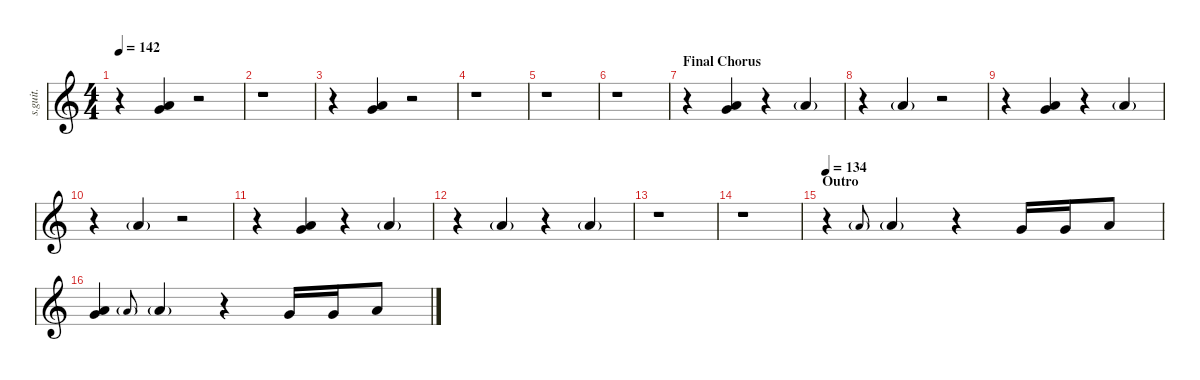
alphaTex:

\defaultSystemsLayout 4
\hideDynamics
\bracketExtendMode nobrackets
\track ("Shawn Crahan" "s.guit.") {instrument percussion}
\staff {score}
\articulation defaults
\ts (4 4)
\tempo 142
\clef g2
\ks c
r.4{dy f} ("Very Low Tom (hit)" "Low Floor Tom (hit)").4 r.2 |
r.1 |
r.4 ("Very Low Tom (hit)" "Low Floor Tom (hit)").4 r.2 |
r.1 |
r.1 |
r.1 |
\section ("" "Final Chorus")
r.4 ("Very Low Tom (hit)" "Low Floor Tom (hit)").4 r.4 "Low Floor Tom (hit)"{g}.4 |
r.4 "Low Floor Tom (hit)"{g}.4 r.2 |
r.4 ("Very Low Tom (hit)" "Low Floor Tom (hit)").4 r.4 "Low Floor Tom (hit)"{g}.4 |
r.4 "Low Floor Tom (hit)"{g}.4 r.2 |
r.4 ("Very Low Tom (hit)" "Low Floor Tom (hit)").4 r.4 "Low Floor Tom (hit)"{g}.4 |
r.4 "Low Floor Tom (hit)"{g}.4 r.4 "Low Floor Tom (hit)"{g}.4 |
r.1 |
r.1 |
\section ("" "Outro")
\tempo 134
r.4 "Low Floor Tom (hit)"{g}.8{gr onbeat} "Low Floor Tom (hit)"{g}.4 r.4 "Very Low Tom (hit)".16 "Very Low Tom (hit)".16 "Low Floor Tom (hit)".8 |
("Very Low Tom (hit)" "Low Floor Tom (hit)").4 "Low Floor Tom (hit)"{g}.8{gr onbeat} "Low Floor Tom (hit)"{g}.4 r.4 "Very Low Tom (hit)".16 "Very Low Tom (hit)".16 "Low Floor Tom (hit)".8
